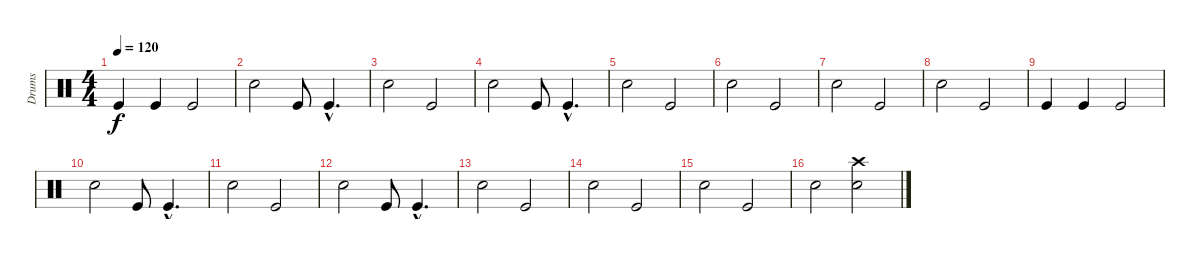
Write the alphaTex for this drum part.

\track ("Drums" "Drums") {instrument percussion}
\staff {score}
\articulation defaults
\ts (4 4)
\tempo 120
\clef neutral
\ks c "Kick (hit)".4{dy f} "Kick (hit)".4 "Kick (hit)".2
|
"Snare (hit) 2".2 "Kick (hit)".8 "Kick (hit)"{hac}.4{d} |
"Snare (hit) 2".2 "Kick (hit)".2 |
"Snare (hit) 2".2 "Kick (hit)".8 "Kick (hit)"{hac}.4{d} |
"Snare (hit) 2".2 "Kick (hit)".2 |
"Snare (hit) 2".2 "Kick (hit)".2 |
"Snare (hit) 2".2 "Kick (hit)".2 |
"Snare (hit) 2".2 "Kick (hit)".2 |
"Kick (hit)".4 "Kick (hit)".4 "Kick (hit)".2 |
"Snare (hit) 2".2 "Kick (hit)".8 "Kick (hit)"{hac}.4{d} |
"Snare (hit) 2".2 "Kick (hit)".2 |
"Snare (hit) 2".2 "Kick (hit)".8 "Kick (hit)"{hac}.4{d} |
"Snare (hit) 2".2 "Kick (hit)".2 |
"Snare (hit) 2".2 "Kick (hit)".2 |
"Snare (hit) 2".2 "Kick (hit)".2 |
"Snare (hit) 2".2 ("Electric Snare (hit)" "Crash high (hit)").2
